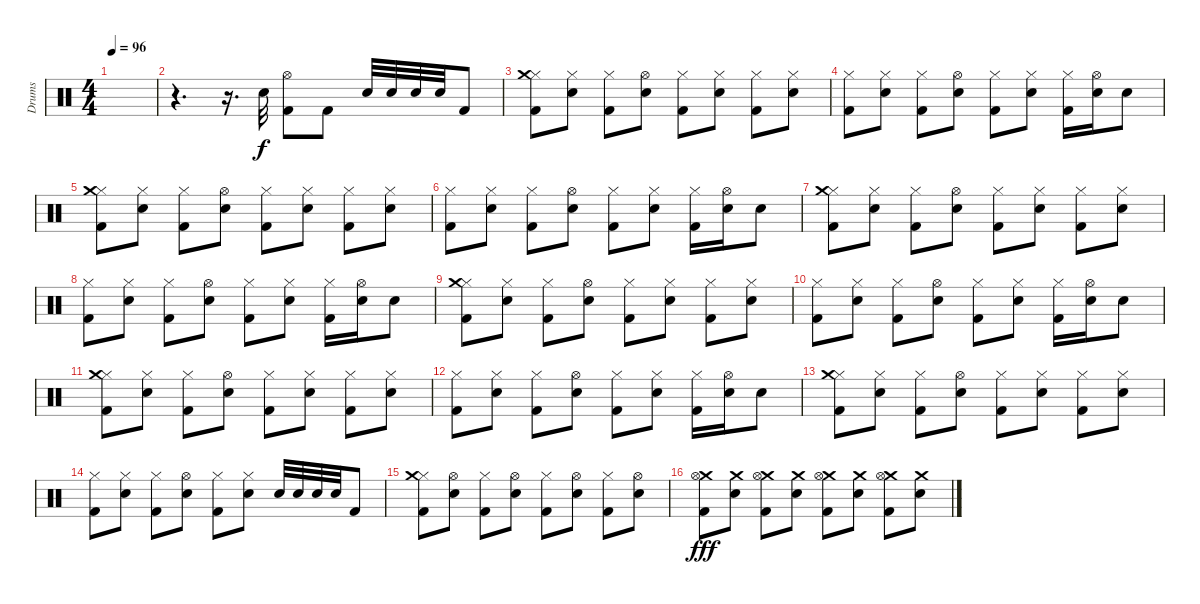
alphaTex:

\track ("Drums" "Drums") {instrument percussion}
\staff {score}
\articulation defaults
\ts (4 4)
\tempo 96
\clef neutral
\ks c
|
r.4{d} r.16{d} "Snare (hit) 2".32 ("Hi-Hat (open)" "Kick (hit) 2").8 "Kick (hit) 2".8 "Snare (hit) 2".32 "Snare (hit) 2".32 "Snare (hit) 2".32 "Snare (hit) 2".32 "Kick (hit) 2".8 |
("Hi-Hat (closed)" "Crash medium (hit)" "Kick (hit) 2").8 ("Hi-Hat (closed)" "Snare (hit) 2").8 ("Hi-Hat (closed)" "Kick (hit) 2").8 ("Hi-Hat (open)" "Snare (hit) 2").8 ("Hi-Hat (closed)" "Kick (hit) 2").8 ("Hi-Hat (closed)" "Snare (hit) 2").8 ("Hi-Hat (closed)" "Kick (hit) 2").8 ("Hi-Hat (closed)" "Snare (hit) 2").8 |
("Hi-Hat (closed)" "Kick (hit) 2").8 ("Hi-Hat (closed)" "Snare (hit) 2").8 ("Hi-Hat (closed)" "Kick (hit) 2").8 ("Hi-Hat (open)" "Snare (hit) 2").8 ("Hi-Hat (closed)" "Kick (hit) 2").8 ("Hi-Hat (closed)" "Snare (hit) 2").8 ("Hi-Hat (closed)" "Kick (hit) 2").16 ("Hi-Hat (open)" "Snare (hit) 2").16 "Snare (hit) 2".8 |
("Hi-Hat (closed)" "Crash medium (hit)" "Kick (hit) 2").8 ("Hi-Hat (closed)" "Snare (hit) 2").8 ("Hi-Hat (closed)" "Kick (hit) 2").8 ("Hi-Hat (open)" "Snare (hit) 2").8 ("Hi-Hat (closed)" "Kick (hit) 2").8 ("Hi-Hat (closed)" "Snare (hit) 2").8 ("Hi-Hat (closed)" "Kick (hit) 2").8 ("Hi-Hat (closed)" "Snare (hit) 2").8 |
("Hi-Hat (closed)" "Kick (hit) 2").8 ("Hi-Hat (closed)" "Snare (hit) 2").8 ("Hi-Hat (closed)" "Kick (hit) 2").8 ("Hi-Hat (open)" "Snare (hit) 2").8 ("Hi-Hat (closed)" "Kick (hit) 2").8 ("Hi-Hat (closed)" "Snare (hit) 2").8 ("Hi-Hat (closed)" "Kick (hit) 2").16 ("Hi-Hat (open)" "Snare (hit) 2").16 "Snare (hit) 2".8 |
("Hi-Hat (closed)" "Crash medium (hit)" "Kick (hit) 2").8 ("Hi-Hat (closed)" "Snare (hit) 2").8 ("Hi-Hat (closed)" "Kick (hit) 2").8 ("Hi-Hat (open)" "Snare (hit) 2").8 ("Hi-Hat (closed)" "Kick (hit) 2").8 ("Hi-Hat (closed)" "Snare (hit) 2").8 ("Hi-Hat (closed)" "Kick (hit) 2").8 ("Hi-Hat (closed)" "Snare (hit) 2").8 |
("Hi-Hat (closed)" "Kick (hit) 2").8 ("Hi-Hat (closed)" "Snare (hit) 2").8 ("Hi-Hat (closed)" "Kick (hit) 2").8 ("Hi-Hat (open)" "Snare (hit) 2").8 ("Hi-Hat (closed)" "Kick (hit) 2").8 ("Hi-Hat (closed)" "Snare (hit) 2").8 ("Hi-Hat (closed)" "Kick (hit) 2").16 ("Hi-Hat (open)" "Snare (hit) 2").16 "Snare (hit) 2".8 |
("Hi-Hat (closed)" "Crash medium (hit)" "Kick (hit) 2").8 ("Hi-Hat (closed)" "Snare (hit) 2").8 ("Hi-Hat (closed)" "Kick (hit) 2").8 ("Hi-Hat (open)" "Snare (hit) 2").8 ("Hi-Hat (closed)" "Kick (hit) 2").8 ("Hi-Hat (closed)" "Snare (hit) 2").8 ("Hi-Hat (closed)" "Kick (hit) 2").8 ("Hi-Hat (closed)" "Snare (hit) 2").8 |
("Hi-Hat (closed)" "Kick (hit) 2").8 ("Hi-Hat (closed)" "Snare (hit) 2").8 ("Hi-Hat (closed)" "Kick (hit) 2").8 ("Hi-Hat (open)" "Snare (hit) 2").8 ("Hi-Hat (closed)" "Kick (hit) 2").8 ("Hi-Hat (closed)" "Snare (hit) 2").8 ("Hi-Hat (closed)" "Kick (hit) 2").16 ("Hi-Hat (open)" "Snare (hit) 2").16 "Snare (hit) 2".8 |
("Hi-Hat (closed)" "Crash medium (hit)" "Kick (hit) 2").8 ("Hi-Hat (closed)" "Snare (hit) 2").8 ("Hi-Hat (closed)" "Kick (hit) 2").8 ("Hi-Hat (open)" "Snare (hit) 2").8 ("Hi-Hat (closed)" "Kick (hit) 2").8 ("Hi-Hat (closed)" "Snare (hit) 2").8 ("Hi-Hat (closed)" "Kick (hit) 2").8 ("Hi-Hat (closed)" "Snare (hit) 2").8 |
("Hi-Hat (closed)" "Kick (hit) 2").8 ("Hi-Hat (closed)" "Snare (hit) 2").8 ("Hi-Hat (closed)" "Kick (hit) 2").8 ("Hi-Hat (open)" "Snare (hit) 2").8 ("Hi-Hat (closed)" "Kick (hit) 2").8 ("Hi-Hat (closed)" "Snare (hit) 2").8 ("Hi-Hat (closed)" "Kick (hit) 2").16 ("Hi-Hat (open)" "Snare (hit) 2").16 "Snare (hit) 2".8 |
("Hi-Hat (closed)" "Crash medium (hit)" "Kick (hit) 2").8 ("Hi-Hat (closed)" "Snare (hit) 2").8 ("Hi-Hat (closed)" "Kick (hit) 2").8 ("Hi-Hat (open)" "Snare (hit) 2").8 ("Hi-Hat (closed)" "Kick (hit) 2").8 ("Hi-Hat (closed)" "Snare (hit) 2").8 ("Hi-Hat (closed)" "Kick (hit) 2").8 ("Hi-Hat (closed)" "Snare (hit) 2").8 |
("Hi-Hat (closed)" "Kick (hit) 2").8 ("Hi-Hat (closed)" "Snare (hit) 2").8 ("Hi-Hat (closed)" "Kick (hit) 2").8 ("Hi-Hat (open)" "Snare (hit) 2").8 ("Hi-Hat (closed)" "Kick (hit) 2").8 ("Hi-Hat (closed)" "Snare (hit) 2").8 "Snare (hit) 2".32 "Snare (hit) 2".32 "Snare (hit) 2".32 "Snare (hit) 2".32 "Kick (hit) 2".8 |
("Hi-Hat (closed)" "Crash medium (hit)" "Kick (hit) 2").8 ("Hi-Hat (open)" "Snare (hit) 2").8 ("Hi-Hat (closed)" "Kick (hit) 2").8 ("Hi-Hat (open)" "Snare (hit) 2").8 ("Hi-Hat (closed)" "Kick (hit) 2").8 ("Hi-Hat (open)" "Snare (hit) 2").8 ("Hi-Hat (closed)" "Kick (hit) 2").8 ("Hi-Hat (open)" "Snare (hit) 2").8 |
("Crash medium (hit)" "Hi-Hat (open)" "Kick (hit) 2").8{dy fff} ("Crash medium (hit)" "Snare (hit) 2").8 ("Crash medium (hit)" "Hi-Hat (open)" "Kick (hit) 2").8 ("Crash medium (hit)" "Snare (hit) 2").8 ("Crash medium (hit)" "Hi-Hat (open)" "Kick (hit) 2").8 ("Crash medium (hit)" "Snare (hit) 2").8 ("Crash medium (hit)" "Hi-Hat (open)" "Kick (hit) 2").8 ("Crash medium (hit)" "Snare (hit) 2").8
